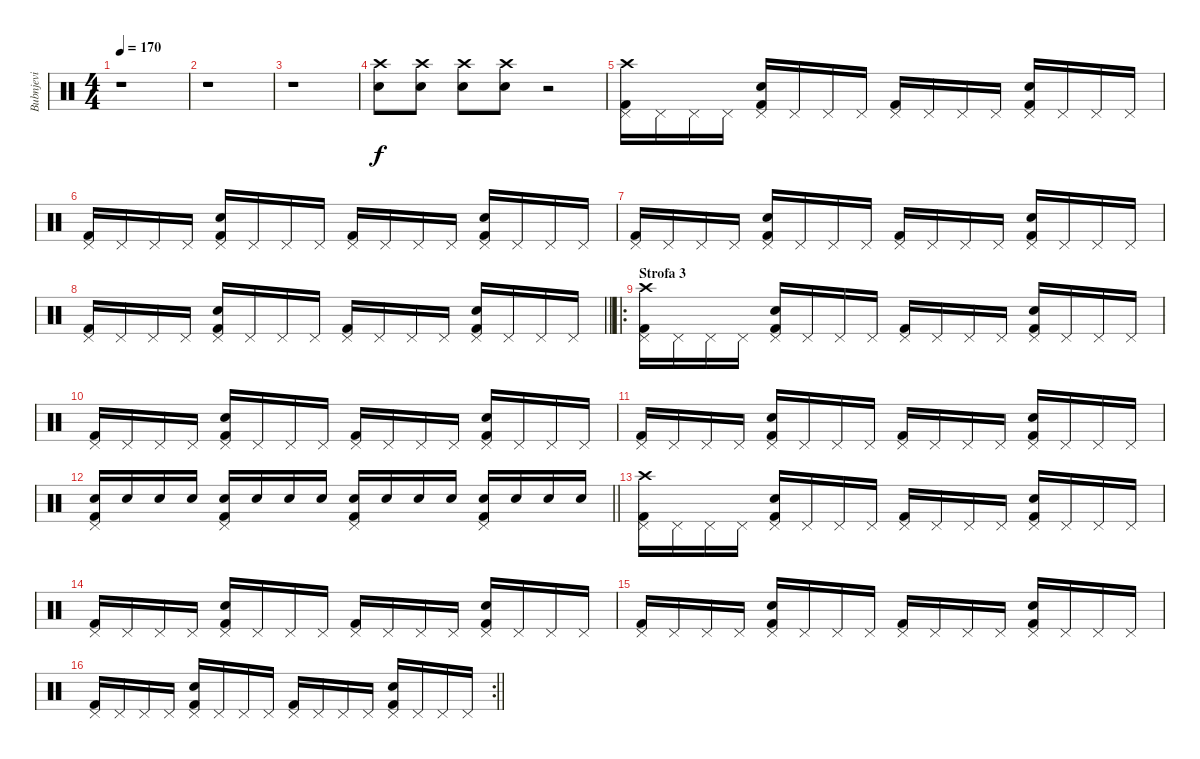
\track ("Bubnjevi" "Bubnjevi") {instrument percussion}
\staff {score}
\articulation defaults
\ts (4 4)
\tempo 170
\clef neutral
\ks c
r.1{dy f} |
r.1 |
r.1 |
("Crash high (hit)" "Electric Snare (hit)").8 ("Crash high (hit)" "Electric Snare (hit)").8 ("Crash high (hit)" "Electric Snare (hit)").8 ("Crash high (hit)" "Electric Snare (hit)").8 r.2 |
("Crash high (hit)" "Pedal Hi-Hat (hit)" "Kick (hit) 2").16 "Pedal Hi-Hat (hit)".16 "Pedal Hi-Hat (hit)".16 "Pedal Hi-Hat (hit)".16 ("Pedal Hi-Hat (hit)" "Electric Snare (hit)" "Kick (hit) 2").16 "Pedal Hi-Hat (hit)".16 "Pedal Hi-Hat (hit)".16 "Pedal Hi-Hat (hit)".16 ("Pedal Hi-Hat (hit)" "Kick (hit) 2").16 "Pedal Hi-Hat (hit)".16 "Pedal Hi-Hat (hit)".16 "Pedal Hi-Hat (hit)".16 ("Pedal Hi-Hat (hit)" "Electric Snare (hit)" "Kick (hit) 2").16 "Pedal Hi-Hat (hit)".16 "Pedal Hi-Hat (hit)".16 "Pedal Hi-Hat (hit)".16 |
("Pedal Hi-Hat (hit)" "Kick (hit) 2").16 "Pedal Hi-Hat (hit)".16 "Pedal Hi-Hat (hit)".16 "Pedal Hi-Hat (hit)".16 ("Pedal Hi-Hat (hit)" "Electric Snare (hit)" "Kick (hit) 2").16 "Pedal Hi-Hat (hit)".16 "Pedal Hi-Hat (hit)".16 "Pedal Hi-Hat (hit)".16 ("Pedal Hi-Hat (hit)" "Kick (hit) 2").16 "Pedal Hi-Hat (hit)".16 "Pedal Hi-Hat (hit)".16 "Pedal Hi-Hat (hit)".16 ("Pedal Hi-Hat (hit)" "Electric Snare (hit)" "Kick (hit) 2").16 "Pedal Hi-Hat (hit)".16 "Pedal Hi-Hat (hit)".16 "Pedal Hi-Hat (hit)".16 |
("Pedal Hi-Hat (hit)" "Kick (hit) 2").16 "Pedal Hi-Hat (hit)".16 "Pedal Hi-Hat (hit)".16 "Pedal Hi-Hat (hit)".16 ("Pedal Hi-Hat (hit)" "Electric Snare (hit)" "Kick (hit) 2").16 "Pedal Hi-Hat (hit)".16 "Pedal Hi-Hat (hit)".16 "Pedal Hi-Hat (hit)".16 ("Pedal Hi-Hat (hit)" "Kick (hit) 2").16 "Pedal Hi-Hat (hit)".16 "Pedal Hi-Hat (hit)".16 "Pedal Hi-Hat (hit)".16 ("Pedal Hi-Hat (hit)" "Electric Snare (hit)" "Kick (hit) 2").16 "Pedal Hi-Hat (hit)".16 "Pedal Hi-Hat (hit)".16 "Pedal Hi-Hat (hit)".16 |
\barLineRight lightlight
("Pedal Hi-Hat (hit)" "Kick (hit) 2").16 "Pedal Hi-Hat (hit)".16 "Pedal Hi-Hat (hit)".16 "Pedal Hi-Hat (hit)".16 ("Pedal Hi-Hat (hit)" "Electric Snare (hit)" "Kick (hit) 2").16 "Pedal Hi-Hat (hit)".16 "Pedal Hi-Hat (hit)".16 "Pedal Hi-Hat (hit)".16 ("Pedal Hi-Hat (hit)" "Kick (hit) 2").16 "Pedal Hi-Hat (hit)".16 "Pedal Hi-Hat (hit)".16 "Pedal Hi-Hat (hit)".16 ("Pedal Hi-Hat (hit)" "Electric Snare (hit)" "Kick (hit) 2").16 "Pedal Hi-Hat (hit)".16 "Pedal Hi-Hat (hit)".16 "Pedal Hi-Hat (hit)".16 |
\ro
\section ("" "Strofa 3")
("Crash high (hit)" "Pedal Hi-Hat (hit)" "Kick (hit) 2").16 "Pedal Hi-Hat (hit)".16 "Pedal Hi-Hat (hit)".16 "Pedal Hi-Hat (hit)".16 ("Pedal Hi-Hat (hit)" "Electric Snare (hit)" "Kick (hit) 2").16 "Pedal Hi-Hat (hit)".16 "Pedal Hi-Hat (hit)".16 "Pedal Hi-Hat (hit)".16 ("Pedal Hi-Hat (hit)" "Kick (hit) 2").16 "Pedal Hi-Hat (hit)".16 "Pedal Hi-Hat (hit)".16 "Pedal Hi-Hat (hit)".16 ("Pedal Hi-Hat (hit)" "Electric Snare (hit)" "Kick (hit) 2").16 "Pedal Hi-Hat (hit)".16 "Pedal Hi-Hat (hit)".16 "Pedal Hi-Hat (hit)".16 |
("Pedal Hi-Hat (hit)" "Kick (hit) 2").16 "Pedal Hi-Hat (hit)".16 "Pedal Hi-Hat (hit)".16 "Pedal Hi-Hat (hit)".16 ("Pedal Hi-Hat (hit)" "Electric Snare (hit)" "Kick (hit) 2").16 "Pedal Hi-Hat (hit)".16 "Pedal Hi-Hat (hit)".16 "Pedal Hi-Hat (hit)".16 ("Pedal Hi-Hat (hit)" "Kick (hit) 2").16 "Pedal Hi-Hat (hit)".16 "Pedal Hi-Hat (hit)".16 "Pedal Hi-Hat (hit)".16 ("Pedal Hi-Hat (hit)" "Electric Snare (hit)" "Kick (hit) 2").16 "Pedal Hi-Hat (hit)".16 "Pedal Hi-Hat (hit)".16 "Pedal Hi-Hat (hit)".16 |
("Pedal Hi-Hat (hit)" "Kick (hit) 2").16 "Pedal Hi-Hat (hit)".16 "Pedal Hi-Hat (hit)".16 "Pedal Hi-Hat (hit)".16 ("Pedal Hi-Hat (hit)" "Electric Snare (hit)" "Kick (hit) 2").16 "Pedal Hi-Hat (hit)".16 "Pedal Hi-Hat (hit)".16 "Pedal Hi-Hat (hit)".16 ("Pedal Hi-Hat (hit)" "Kick (hit) 2").16 "Pedal Hi-Hat (hit)".16 "Pedal Hi-Hat (hit)".16 "Pedal Hi-Hat (hit)".16 ("Pedal Hi-Hat (hit)" "Electric Snare (hit)" "Kick (hit) 2").16 "Pedal Hi-Hat (hit)".16 "Pedal Hi-Hat (hit)".16 "Pedal Hi-Hat (hit)".16 |
\barLineRight lightlight
("Pedal Hi-Hat (hit)" "Electric Snare (hit)" "Kick (hit) 2").16 "Electric Snare (hit)".16 "Electric Snare (hit)".16 "Electric Snare (hit)".16 ("Pedal Hi-Hat (hit)" "Electric Snare (hit)" "Kick (hit) 2").16 "Electric Snare (hit)".16 "Electric Snare (hit)".16 "Electric Snare (hit)".16 ("Pedal Hi-Hat (hit)" "Electric Snare (hit)" "Kick (hit) 2").16 "Electric Snare (hit)".16 "Electric Snare (hit)".16 "Electric Snare (hit)".16 ("Pedal Hi-Hat (hit)" "Electric Snare (hit)" "Kick (hit) 2").16 "Electric Snare (hit)".16 "Electric Snare (hit)".16 "Electric Snare (hit)".16 |
("Crash high (hit)" "Pedal Hi-Hat (hit)" "Kick (hit) 2").16 "Pedal Hi-Hat (hit)".16 "Pedal Hi-Hat (hit)".16 "Pedal Hi-Hat (hit)".16 ("Pedal Hi-Hat (hit)" "Electric Snare (hit)" "Kick (hit) 2").16 "Pedal Hi-Hat (hit)".16 "Pedal Hi-Hat (hit)".16 "Pedal Hi-Hat (hit)".16 ("Pedal Hi-Hat (hit)" "Kick (hit) 2").16 "Pedal Hi-Hat (hit)".16 "Pedal Hi-Hat (hit)".16 "Pedal Hi-Hat (hit)".16 ("Pedal Hi-Hat (hit)" "Electric Snare (hit)" "Kick (hit) 2").16 "Pedal Hi-Hat (hit)".16 "Pedal Hi-Hat (hit)".16 "Pedal Hi-Hat (hit)".16 |
("Pedal Hi-Hat (hit)" "Kick (hit) 2").16 "Pedal Hi-Hat (hit)".16 "Pedal Hi-Hat (hit)".16 "Pedal Hi-Hat (hit)".16 ("Pedal Hi-Hat (hit)" "Electric Snare (hit)" "Kick (hit) 2").16 "Pedal Hi-Hat (hit)".16 "Pedal Hi-Hat (hit)".16 "Pedal Hi-Hat (hit)".16 ("Pedal Hi-Hat (hit)" "Kick (hit) 2").16 "Pedal Hi-Hat (hit)".16 "Pedal Hi-Hat (hit)".16 "Pedal Hi-Hat (hit)".16 ("Pedal Hi-Hat (hit)" "Electric Snare (hit)" "Kick (hit) 2").16 "Pedal Hi-Hat (hit)".16 "Pedal Hi-Hat (hit)".16 "Pedal Hi-Hat (hit)".16 |
("Pedal Hi-Hat (hit)" "Kick (hit) 2").16 "Pedal Hi-Hat (hit)".16 "Pedal Hi-Hat (hit)".16 "Pedal Hi-Hat (hit)".16 ("Pedal Hi-Hat (hit)" "Electric Snare (hit)" "Kick (hit) 2").16 "Pedal Hi-Hat (hit)".16 "Pedal Hi-Hat (hit)".16 "Pedal Hi-Hat (hit)".16 ("Pedal Hi-Hat (hit)" "Kick (hit) 2").16 "Pedal Hi-Hat (hit)".16 "Pedal Hi-Hat (hit)".16 "Pedal Hi-Hat (hit)".16 ("Pedal Hi-Hat (hit)" "Electric Snare (hit)" "Kick (hit) 2").16 "Pedal Hi-Hat (hit)".16 "Pedal Hi-Hat (hit)".16 "Pedal Hi-Hat (hit)".16 |
\rc 2
\barLineRight lightlight
("Pedal Hi-Hat (hit)" "Kick (hit) 2").16 "Pedal Hi-Hat (hit)".16 "Pedal Hi-Hat (hit)".16 "Pedal Hi-Hat (hit)".16 ("Pedal Hi-Hat (hit)" "Electric Snare (hit)" "Kick (hit) 2").16 "Pedal Hi-Hat (hit)".16 "Pedal Hi-Hat (hit)".16 "Pedal Hi-Hat (hit)".16 ("Pedal Hi-Hat (hit)" "Kick (hit) 2").16 "Pedal Hi-Hat (hit)".16 "Pedal Hi-Hat (hit)".16 "Pedal Hi-Hat (hit)".16 ("Pedal Hi-Hat (hit)" "Electric Snare (hit)" "Kick (hit) 2").16 "Pedal Hi-Hat (hit)".16 "Pedal Hi-Hat (hit)".16 "Pedal Hi-Hat (hit)".16
